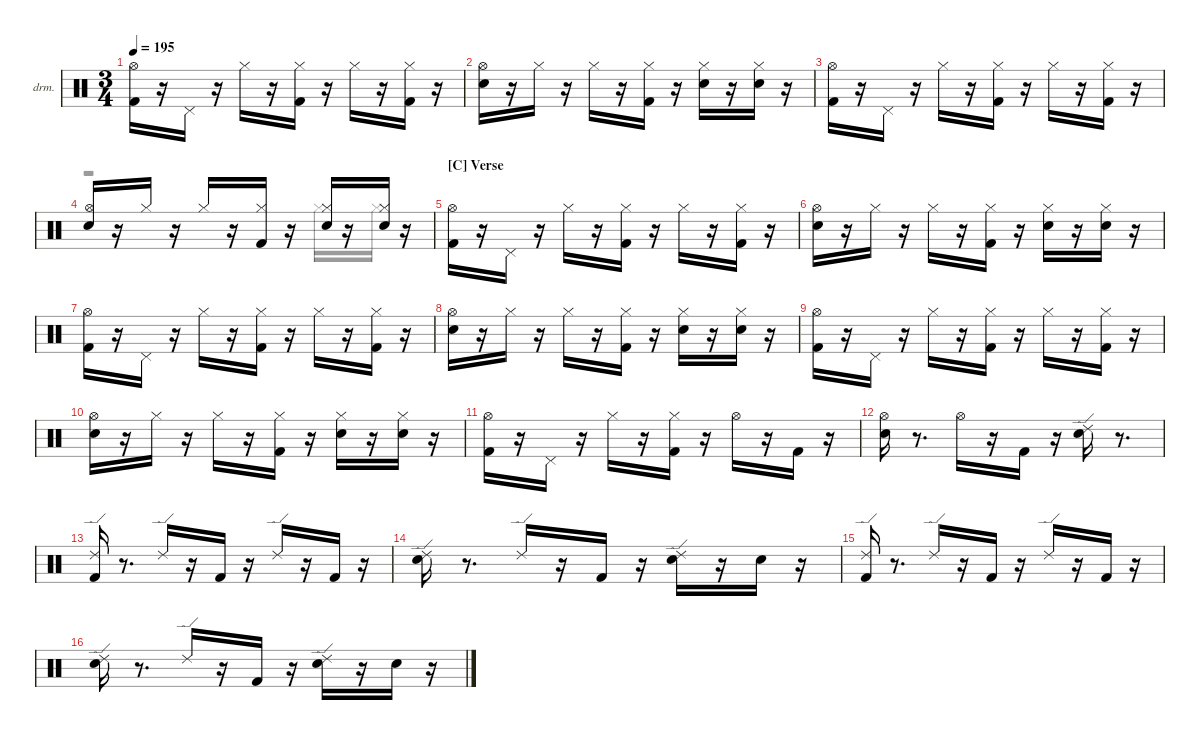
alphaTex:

\hideDynamics
\bracketExtendMode nobrackets
\firstSystemTrackNameOrientation horizontal
\track ("Drums" "drm.") {instrument percussion}
\staff {score}
\articulation defaults
\voice
\ts (3 4)
\tempo 195
\clef neutral
\ks aminor
("Kick (hit) 2" "Hi-Hat (open)"{acc #}).16{dy ff} r.16 "Pedal Hi-Hat (hit)"{acc #}.16 r.16 "Hi-Hat (closed)"{acc #}.16{dy pp} r.16 ("Kick (hit) 2" "Hi-Hat (closed)"{acc #}).16{dy ff} r.16 "Hi-Hat (closed)"{acc #}.16{dy pp} r.16 ("Kick (hit) 2" "Hi-Hat (closed)"{acc #}).16{dy ff} r.16 |
("Snare (hit) 2" "Hi-Hat (open)"{acc #}).16 r.16 "Hi-Hat (closed)"{acc #}.16{dy f} r.16 "Hi-Hat (closed)"{acc #}.16{dy fff} r.16 ("Kick (hit) 2" "Hi-Hat (closed)"{acc #}).16{dy ff} r.16 ("Snare (hit) 2" "Hi-Hat (closed)"{acc #}).16 r.16 ("Snare (hit) 2" "Hi-Hat (closed)"{acc #}).16{dy ppp} r.16 |
("Kick (hit) 2" "Hi-Hat (open)"{acc #}).16{dy fff} r.16 "Pedal Hi-Hat (hit)"{acc #}.16{dy ff} r.16 "Hi-Hat (closed)"{acc #}.16{dy pp} r.16 ("Kick (hit) 2" "Hi-Hat (closed)"{acc #}).16{dy ff} r.16 "Hi-Hat (closed)"{acc #}.16{dy pp} r.16 ("Kick (hit) 2" "Hi-Hat (closed)"{acc #}).16{dy mf} r.16 |
("Snare (hit) 2" "Hi-Hat (open)"{acc #}).16{dy ff} r.16 "Hi-Hat (closed)"{acc #}.16{dy f} r.16 "Hi-Hat (closed)"{acc #}.16{dy fff} r.16 ("Kick (hit) 2" "Hi-Hat (closed)"{acc #}).16{dy ff} r.16 ("Snare (hit) 2" "Hi-Hat (closed)"{acc #}).16{dy f} r.16 ("Snare (hit) 2" "Hi-Hat (closed)"{acc #}).16{dy pp} r.16 |
\section ("C" "Verse")
("Kick (hit) 2" "Hi-Hat (open)"{acc #}).16{dy fff} r.16 "Pedal Hi-Hat (hit)"{acc #}.16{dy ff} r.16 "Hi-Hat (closed)"{acc #}.16{dy pp} r.16 ("Kick (hit) 2" "Hi-Hat (closed)"{acc #}).16{dy f} r.16 "Hi-Hat (closed)"{acc #}.16{dy pp} r.16 ("Kick (hit) 2" "Hi-Hat (closed)"{acc #}).16{dy mf} r.16 |
("Snare (hit) 2" "Hi-Hat (open)"{acc #}).16{dy ff} r.16 "Hi-Hat (closed)"{acc #}.16{dy f} r.16 "Hi-Hat (closed)"{acc #}.16{dy fff} r.16 ("Kick (hit) 2" "Hi-Hat (closed)"{acc #}).16{dy ff} r.16 ("Snare (hit) 2" "Hi-Hat (closed)"{acc #}).16 r.16 ("Snare (hit) 2" "Hi-Hat (closed)"{acc #}).16{dy ppp} r.16 |
("Kick (hit) 2" "Hi-Hat (open)"{acc #}).16{dy ff} r.16 "Pedal Hi-Hat (hit)"{acc #}.16 r.16 "Hi-Hat (closed)"{acc #}.16{dy pp} r.16 ("Kick (hit) 2" "Hi-Hat (closed)"{acc #}).16{dy ff} r.16 "Hi-Hat (closed)"{acc #}.16{dy pp} r.16 ("Kick (hit) 2" "Hi-Hat (closed)"{acc #}).16{dy ff} r.16 |
("Snare (hit) 2" "Hi-Hat (open)"{acc #}).16 r.16 "Hi-Hat (closed)"{acc #}.16{dy f} r.16 "Hi-Hat (closed)"{acc #}.16{dy fff} r.16 ("Kick (hit) 2" "Hi-Hat (closed)"{acc #}).16{dy pp} r.16 ("Snare (hit) 2" "Hi-Hat (closed)"{acc #}).16{dy ff} r.16 ("Snare (hit) 2" "Hi-Hat (closed)"{acc #}).16{dy pp} r.16 |
("Kick (hit) 2" "Hi-Hat (open)"{acc #}).16{dy ff} r.16 "Pedal Hi-Hat (hit)"{acc #}.16 r.16 "Hi-Hat (closed)"{acc #}.16{dy pp} r.16 ("Kick (hit) 2" "Hi-Hat (closed)"{acc #}).16{dy f} r.16 "Hi-Hat (closed)"{acc #}.16{dy pp} r.16 ("Kick (hit) 2" "Hi-Hat (closed)"{acc #}).16{dy mf} r.16 |
("Snare (hit) 2" "Hi-Hat (open)"{acc #}).16{dy ff} r.16 "Hi-Hat (closed)"{acc #}.16{dy f} r.16 "Hi-Hat (closed)"{acc #}.16{dy fff} r.16 ("Kick (hit) 2" "Hi-Hat (closed)"{acc #}).16{dy pp} r.16 ("Snare (hit) 2" "Hi-Hat (closed)"{acc #}).16{dy f} r.16 ("Snare (hit) 2" "Hi-Hat (closed)"{acc #}).16{dy pp} r.16 |
("Kick (hit) 2" "Hi-Hat (open)"{acc #}).16{dy ff} r.16 "Pedal Hi-Hat (hit)"{acc #}.16 r.16 "Hi-Hat (closed)"{acc #}.16{dy pp} r.16 ("Kick (hit) 2" "Hi-Hat (closed)"{acc #}).16{dy ff} r.16 "Hi-Hat (open)"{acc #}.16{dy mf} r.16 "Kick (hit) 2".16{dy ff} r.16 |
("Snare (hit) 2" "Hi-Hat (open)"{acc #}).16 r.8{d} "Hi-Hat (open)"{acc #}.16{dy f} r.16 "Kick (hit) 2".16{dy ff} r.16 ("Snare (hit) 2" "Ride (edge) 2").16{dy f} r.8{d} |
("Kick (hit) 2" "Ride (edge) 2").16{dy ff} r.8{d} "Ride (edge) 2".16{dy p} r.16 "Kick (hit) 2".16{dy ff} r.16 "Ride (edge) 2".16{dy mf} r.16 "Kick (hit) 2".16{dy ff} r.16 |
("Snare (hit) 2" "Ride (edge) 2").16 r.8{d} "Ride (edge) 2".16{dy p} r.16 "Kick (hit) 2".16{dy ff} r.16 ("Snare (hit) 2" "Ride (edge) 2").16 r.16 "Snare (hit) 2".16{dy ppp} r.16 |
("Kick (hit) 2" "Ride (edge) 2").16{dy ff} r.8{d} "Ride (edge) 2".16{dy p} r.16 "Kick (hit) 2".16{dy ff} r.16 "Ride (edge) 2".16{dy mf} r.16 "Kick (hit) 2".16{dy ff} r.16 |
("Snare (hit) 2" "Ride (edge) 2").16 r.8{d} "Ride (edge) 2".16{dy p} r.16 "Kick (hit) 2".16{dy ff} r.16 ("Snare (hit) 2" "Ride (edge) 2").16 r.16 "Snare (hit) 2".16{dy ppp} r.16
\voice
\clef neutral
\ottava regular
\simile none
\ks aminor
|
|
|
r.2 "Hi-Hat (closed)"{acc #}.16{dy ff} r.16 "Hi-Hat (closed)"{acc #}.16{dy f} |
|
|
|
|
|
|
|
|
|
|
|
